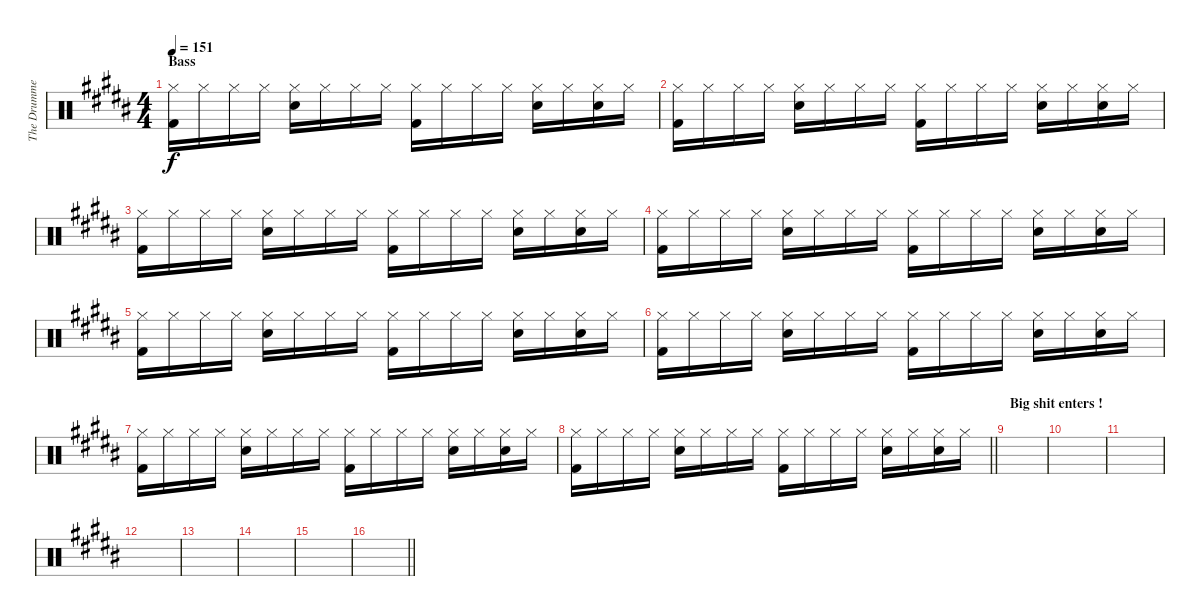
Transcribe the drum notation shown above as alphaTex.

\track ("The Drummer" "The Drumme") {instrument percussion}
\staff {score}
\articulation defaults
\ts (4 4)
\section ("" "Bass")
\tempo 151
\clef neutral
\ks b
("Hi-Hat (closed)" "Kick (hit) 2").16{dy f} "Hi-Hat (closed)".16 "Hi-Hat (closed)".16 "Hi-Hat (closed)".16 ("Hi-Hat (closed)" "Snare (hit) 2").16 "Hi-Hat (closed)".16 "Hi-Hat (closed)".16 "Hi-Hat (closed)".16 ("Hi-Hat (closed)" "Kick (hit) 2").16 "Hi-Hat (closed)".16 "Hi-Hat (closed)".16 "Hi-Hat (closed)".16 ("Hi-Hat (closed)" "Snare (hit) 2").16 "Hi-Hat (closed)".16 ("Hi-Hat (closed)" "Snare (hit) 2").16 "Hi-Hat (closed)".16 |
("Hi-Hat (closed)" "Kick (hit) 2").16 "Hi-Hat (closed)".16 "Hi-Hat (closed)".16 "Hi-Hat (closed)".16 ("Hi-Hat (closed)" "Snare (hit) 2").16 "Hi-Hat (closed)".16 "Hi-Hat (closed)".16 "Hi-Hat (closed)".16 ("Hi-Hat (closed)" "Kick (hit) 2").16 "Hi-Hat (closed)".16 "Hi-Hat (closed)".16 "Hi-Hat (closed)".16 ("Hi-Hat (closed)" "Snare (hit) 2").16 "Hi-Hat (closed)".16 ("Hi-Hat (closed)" "Snare (hit) 2").16 "Hi-Hat (closed)".16 |
("Hi-Hat (closed)" "Kick (hit) 2").16 "Hi-Hat (closed)".16 "Hi-Hat (closed)".16 "Hi-Hat (closed)".16 ("Hi-Hat (closed)" "Snare (hit) 2").16 "Hi-Hat (closed)".16 "Hi-Hat (closed)".16 "Hi-Hat (closed)".16 ("Hi-Hat (closed)" "Kick (hit) 2").16 "Hi-Hat (closed)".16 "Hi-Hat (closed)".16 "Hi-Hat (closed)".16 ("Hi-Hat (closed)" "Snare (hit) 2").16 "Hi-Hat (closed)".16 ("Hi-Hat (closed)" "Snare (hit) 2").16 "Hi-Hat (closed)".16 |
("Hi-Hat (closed)" "Kick (hit) 2").16 "Hi-Hat (closed)".16 "Hi-Hat (closed)".16 "Hi-Hat (closed)".16 ("Hi-Hat (closed)" "Snare (hit) 2").16 "Hi-Hat (closed)".16 "Hi-Hat (closed)".16 "Hi-Hat (closed)".16 ("Hi-Hat (closed)" "Kick (hit) 2").16 "Hi-Hat (closed)".16 "Hi-Hat (closed)".16 "Hi-Hat (closed)".16 ("Hi-Hat (closed)" "Snare (hit) 2").16 "Hi-Hat (closed)".16 ("Hi-Hat (closed)" "Snare (hit) 2").16 "Hi-Hat (closed)".16 |
("Hi-Hat (closed)" "Kick (hit) 2").16 "Hi-Hat (closed)".16 "Hi-Hat (closed)".16 "Hi-Hat (closed)".16 ("Hi-Hat (closed)" "Snare (hit) 2").16 "Hi-Hat (closed)".16 "Hi-Hat (closed)".16 "Hi-Hat (closed)".16 ("Hi-Hat (closed)" "Kick (hit) 2").16 "Hi-Hat (closed)".16 "Hi-Hat (closed)".16 "Hi-Hat (closed)".16 ("Hi-Hat (closed)" "Snare (hit) 2").16 "Hi-Hat (closed)".16 ("Hi-Hat (closed)" "Snare (hit) 2").16 "Hi-Hat (closed)".16 |
("Hi-Hat (closed)" "Kick (hit) 2").16 "Hi-Hat (closed)".16 "Hi-Hat (closed)".16 "Hi-Hat (closed)".16 ("Hi-Hat (closed)" "Snare (hit) 2").16 "Hi-Hat (closed)".16 "Hi-Hat (closed)".16 "Hi-Hat (closed)".16 ("Hi-Hat (closed)" "Kick (hit) 2").16 "Hi-Hat (closed)".16 "Hi-Hat (closed)".16 "Hi-Hat (closed)".16 ("Hi-Hat (closed)" "Snare (hit) 2").16 "Hi-Hat (closed)".16 ("Hi-Hat (closed)" "Snare (hit) 2").16 "Hi-Hat (closed)".16 |
("Hi-Hat (closed)" "Kick (hit) 2").16 "Hi-Hat (closed)".16 "Hi-Hat (closed)".16 "Hi-Hat (closed)".16 ("Hi-Hat (closed)" "Snare (hit) 2").16 "Hi-Hat (closed)".16 "Hi-Hat (closed)".16 "Hi-Hat (closed)".16 ("Hi-Hat (closed)" "Kick (hit) 2").16 "Hi-Hat (closed)".16 "Hi-Hat (closed)".16 "Hi-Hat (closed)".16 ("Hi-Hat (closed)" "Snare (hit) 2").16 "Hi-Hat (closed)".16 ("Hi-Hat (closed)" "Snare (hit) 2").16 "Hi-Hat (closed)".16 |
\barLineRight lightlight
("Hi-Hat (closed)" "Kick (hit) 2").16 "Hi-Hat (closed)".16 "Hi-Hat (closed)".16 "Hi-Hat (closed)".16 ("Hi-Hat (closed)" "Snare (hit) 2").16 "Hi-Hat (closed)".16 "Hi-Hat (closed)".16 "Hi-Hat (closed)".16 ("Hi-Hat (closed)" "Kick (hit) 2").16 "Hi-Hat (closed)".16 "Hi-Hat (closed)".16 "Hi-Hat (closed)".16 ("Hi-Hat (closed)" "Snare (hit) 2").16 "Hi-Hat (closed)".16 ("Hi-Hat (closed)" "Snare (hit) 2").16 "Hi-Hat (closed)".16 |
\section ("" "Big shit enters !")
|
|
|
|
|
|
|
\barLineRight lightlight
